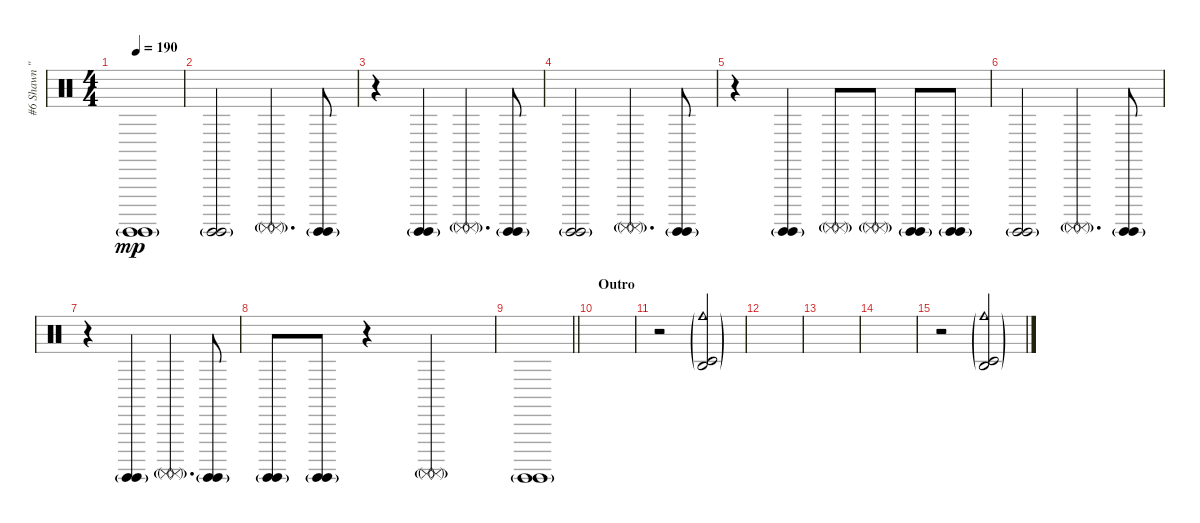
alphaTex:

\track ("#6 Shawn \"Clown\" Crahan" "#6 Shawn \"") {instrument percussion}
\staff {score}
\articulation defaults
\ts (4 4)
\tempo 190
\clef neutral
\ks c
("Surdo (hit)"{g} "Surdo (hit)"{g}).1{dy mp} |
("Surdo (hit)"{g} "Surdo (hit)"{g}).2 ("Surdo (mute)"{g} "Surdo (mute)"{g}).4{d} ("Surdo (hit)"{g} "Surdo (hit)"{g}).8 |
r.4 ("Surdo (hit)"{g} "Surdo (hit)"{g}).4 ("Surdo (mute)"{g} "Surdo (mute)"{g}).4{d} ("Surdo (hit)"{g} "Surdo (hit)"{g}).8 |
("Surdo (hit)"{g} "Surdo (hit)"{g}).2 ("Surdo (mute)"{g} "Surdo (mute)"{g}).4{d} ("Surdo (hit)"{g} "Surdo (hit)"{g}).8 |
r.4 ("Surdo (hit)"{g} "Surdo (hit)"{g}).4 ("Surdo (mute)"{g} "Surdo (mute)"{g}).8 ("Surdo (mute)"{g} "Surdo (mute)"{g}).8 ("Surdo (hit)"{g} "Surdo (hit)"{g}).8 ("Surdo (hit)"{g} "Surdo (hit)"{g}).8 |
("Surdo (hit)"{g} "Surdo (hit)"{g}).2 ("Surdo (mute)"{g} "Surdo (mute)"{g}).4{d} ("Surdo (hit)"{g} "Surdo (hit)"{g}).8 |
r.4 ("Surdo (hit)"{g} "Surdo (hit)"{g}).4 ("Surdo (mute)"{g} "Surdo (mute)"{g}).4{d} ("Surdo (hit)"{g} "Surdo (hit)"{g}).8 |
("Surdo (hit)"{g} "Surdo (hit)"{g}).8 ("Surdo (hit)"{g} "Surdo (hit)"{g}).8 r.4 ("Surdo (mute)"{g} "Surdo (mute)"{g}).2 |
\barLineRight lightlight
("Surdo (hit)"{g} "Surdo (hit)"{g}).1 |
\section ("" "Outro")
|
r.2 ("Cowbell medium (hit)"{g} "Timbale low (hit)"{g} "Agogo high (hit)"{g}).2 |
|
|
|
r.2 ("Cowbell medium (hit)"{g} "Timbale low (hit)"{g} "Agogo high (hit)"{g}).2
